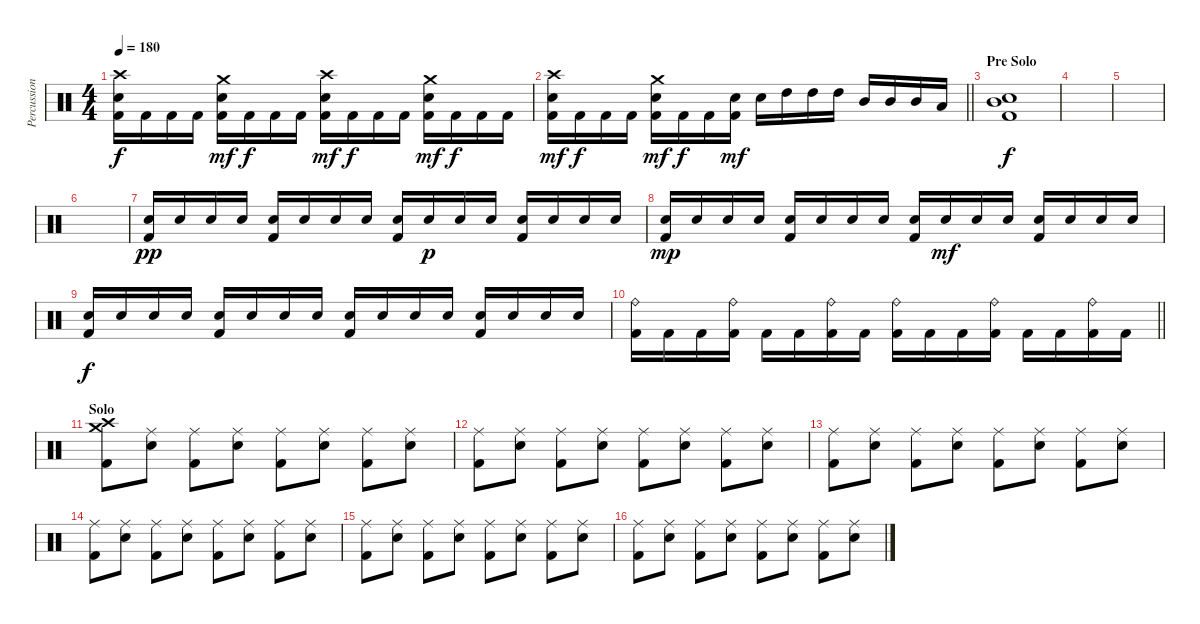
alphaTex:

\track ("Percussion" "Percussion") {instrument percussion}
\staff {score}
\articulation defaults
\ts (4 4)
\tempo 180
\clef neutral
\ks c
("Crash high (hit)" "Electric Snare (hit)" "Kick (hit) 2").16{dy f} "Kick (hit) 2".16 "Kick (hit) 2".16 "Kick (hit) 2".16 ("Crash medium (hit)" "Electric Snare (hit)" "Kick (hit) 2").16{dy mf} "Kick (hit) 2".16{dy f} "Kick (hit) 2".16 "Kick (hit) 2".16 ("Crash high (hit)" "Electric Snare (hit)" "Kick (hit) 2").16{dy mf} "Kick (hit) 2".16{dy f} "Kick (hit) 2".16 "Kick (hit) 2".16 ("Crash medium (hit)" "Electric Snare (hit)" "Kick (hit) 2").16{dy mf} "Kick (hit) 2".16{dy f} "Kick (hit) 2".16 "Kick (hit) 2".16 |
\barLineRight lightlight
("Crash high (hit)" "Electric Snare (hit)" "Kick (hit) 2").16{dy mf} "Kick (hit) 2".16{dy f} "Kick (hit) 2".16 "Kick (hit) 2".16 ("Crash medium (hit)" "Electric Snare (hit)" "Kick (hit) 2").16{dy mf} "Kick (hit) 2".16{dy f} "Kick (hit) 2".16 ("Electric Snare (hit)" "Kick (hit) 2").16{dy mf} "Electric Snare (hit)".16 "High Tom (hit)".16 "High Tom (hit)".16 "High Tom (hit)".16 "Mid Tom (hit)".16 "Mid Tom (hit)".16 "Mid Tom (hit)".16 "Low Tom (hit)".16 |
\section ("" "Pre Solo")
("Electric Snare (hit)" "Mid Tom (hit)" "Kick (hit) 2").1{dy f} |
|
|
|
("Electric Snare (hit)" "Kick (hit) 2").16{dy pp} "Electric Snare (hit)".16 "Electric Snare (hit)".16 "Electric Snare (hit)".16 ("Electric Snare (hit)" "Kick (hit) 2").16 "Electric Snare (hit)".16 "Electric Snare (hit)".16 "Electric Snare (hit)".16 ("Electric Snare (hit)" "Kick (hit) 2").16 "Electric Snare (hit)".16{dy p} "Electric Snare (hit)".16 "Electric Snare (hit)".16 ("Electric Snare (hit)" "Kick (hit) 2").16 "Electric Snare (hit)".16 "Electric Snare (hit)".16 "Electric Snare (hit)".16 |
("Electric Snare (hit)" "Kick (hit) 2").16{dy mp} "Electric Snare (hit)".16 "Electric Snare (hit)".16 "Electric Snare (hit)".16 ("Electric Snare (hit)" "Kick (hit) 2").16 "Electric Snare (hit)".16 "Electric Snare (hit)".16 "Electric Snare (hit)".16 ("Electric Snare (hit)" "Kick (hit) 2").16 "Electric Snare (hit)".16{dy mf} "Electric Snare (hit)".16 "Electric Snare (hit)".16 ("Electric Snare (hit)" "Kick (hit) 2").16 "Electric Snare (hit)".16 "Electric Snare (hit)".16 "Electric Snare (hit)".16 |
("Electric Snare (hit)" "Kick (hit) 2").16{dy f} "Electric Snare (hit)".16 "Electric Snare (hit)".16 "Electric Snare (hit)".16 ("Electric Snare (hit)" "Kick (hit) 2").16 "Electric Snare (hit)".16 "Electric Snare (hit)".16 "Electric Snare (hit)".16 ("Electric Snare (hit)" "Kick (hit) 2").16 "Electric Snare (hit)".16 "Electric Snare (hit)".16 "Electric Snare (hit)".16 ("Electric Snare (hit)" "Kick (hit) 2").16 "Electric Snare (hit)".16 "Electric Snare (hit)".16 "Electric Snare (hit)".16 |
\barLineRight lightlight
("Ride (bell)" "Kick (hit) 2").16 "Kick (hit) 2".16 "Kick (hit) 2".16 ("Ride (bell)" "Kick (hit) 2").16 "Kick (hit) 2".16 "Kick (hit) 2".16 ("Ride (bell)" "Kick (hit) 2").16 "Kick (hit) 2".16 ("Ride (bell)" "Kick (hit) 2").16 "Kick (hit) 2".16 "Kick (hit) 2".16 ("Ride (bell)" "Kick (hit) 2").16 "Kick (hit) 2".16 "Kick (hit) 2".16 ("Ride (bell)" "Kick (hit) 2").16 "Kick (hit) 2".16 |
\section ("" "Solo")
("Crash high (hit)" "Crash medium (hit)" "Kick (hit) 2").8 ("Ride (middle)" "Electric Snare (hit)").8 ("Ride (middle)" "Kick (hit) 2").8 ("Ride (middle)" "Electric Snare (hit)").8 ("Ride (middle)" "Kick (hit) 2").8 ("Ride (middle)" "Electric Snare (hit)").8 ("Ride (middle)" "Kick (hit) 2").8 ("Ride (middle)" "Electric Snare (hit)").8 |
("Ride (middle)" "Kick (hit) 2").8 ("Ride (middle)" "Electric Snare (hit)").8 ("Ride (middle)" "Kick (hit) 2").8 ("Ride (middle)" "Electric Snare (hit)").8 ("Ride (middle)" "Kick (hit) 2").8 ("Ride (middle)" "Electric Snare (hit)").8 ("Ride (middle)" "Kick (hit) 2").8 ("Ride (middle)" "Electric Snare (hit)").8 |
("Ride (middle)" "Kick (hit) 2").8 ("Ride (middle)" "Electric Snare (hit)").8 ("Ride (middle)" "Kick (hit) 2").8 ("Ride (middle)" "Electric Snare (hit)").8 ("Ride (middle)" "Kick (hit) 2").8 ("Ride (middle)" "Electric Snare (hit)").8 ("Ride (middle)" "Kick (hit) 2").8 ("Ride (middle)" "Electric Snare (hit)").8 |
("Ride (middle)" "Kick (hit) 2").8 ("Ride (middle)" "Electric Snare (hit)").8 ("Ride (middle)" "Kick (hit) 2").8 ("Ride (middle)" "Electric Snare (hit)").8 ("Ride (middle)" "Kick (hit) 2").8 ("Ride (middle)" "Electric Snare (hit)").8 ("Ride (middle)" "Kick (hit) 2").8 ("Ride (middle)" "Electric Snare (hit)").8 |
("Ride (middle)" "Kick (hit) 2").8 ("Ride (middle)" "Electric Snare (hit)").8 ("Ride (middle)" "Kick (hit) 2").8 ("Ride (middle)" "Electric Snare (hit)").8 ("Ride (middle)" "Kick (hit) 2").8 ("Ride (middle)" "Electric Snare (hit)").8 ("Ride (middle)" "Kick (hit) 2").8 ("Ride (middle)" "Electric Snare (hit)").8 |
("Ride (middle)" "Kick (hit) 2").8 ("Ride (middle)" "Electric Snare (hit)").8 ("Ride (middle)" "Kick (hit) 2").8 ("Ride (middle)" "Electric Snare (hit)").8 ("Ride (middle)" "Kick (hit) 2").8 ("Ride (middle)" "Electric Snare (hit)").8 ("Ride (middle)" "Kick (hit) 2").8 ("Ride (middle)" "Electric Snare (hit)").8
